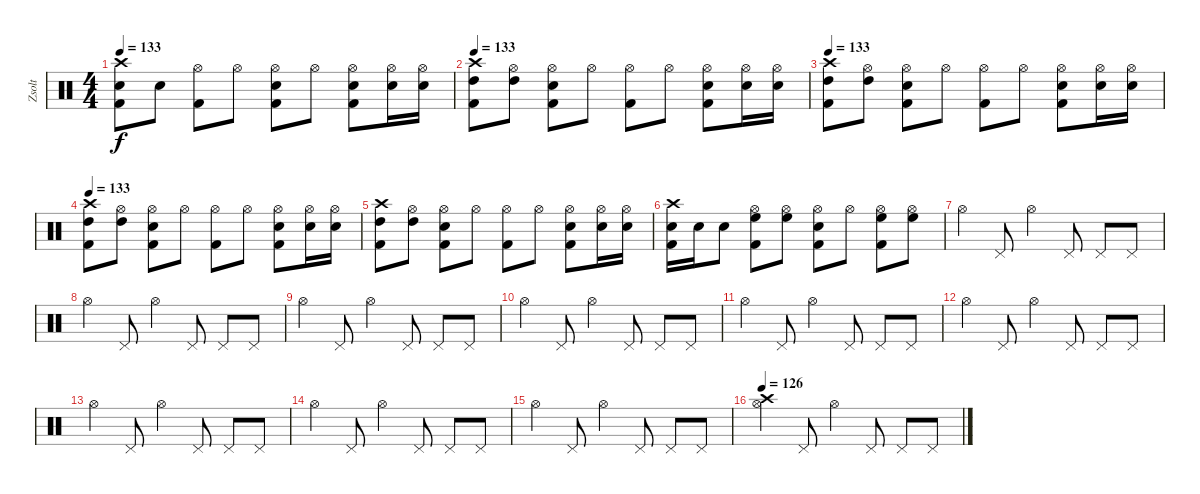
\track ("Zsolt" "Zsolt") {instrument percussion}
\staff {score}
\articulation defaults
\ts (4 4)
\tempo 133
\clef neutral
\ks c
("Crash high (hit)" "Snare (hit) 2" "Kick (hit) 2").8{dy f} "Snare (hit) 2".8 ("Hi-Hat (open)" "Kick (hit) 2").8 "Hi-Hat (open)".8 ("Hi-Hat (open)" "Snare (hit) 2" "Kick (hit) 2").8 "Hi-Hat (open)".8 ("Hi-Hat (open)" "Snare (hit) 2" "Kick (hit) 2").8 ("Hi-Hat (open)" "Snare (hit) 2").16 ("Hi-Hat (open)" "Snare (hit) 2").16 |
\tempo 133
("Crash high (hit)" "High Tom (hit)" "Kick (hit) 2").8 ("Hi-Hat (open)" "High Tom (hit)").8 ("Hi-Hat (open)" "Snare (hit) 2" "Kick (hit) 2").8 "Hi-Hat (open)".8 ("Hi-Hat (open)" "Kick (hit) 2").8 "Hi-Hat (open)".8 ("Hi-Hat (open)" "Snare (hit) 2" "Kick (hit) 2").8 ("Hi-Hat (open)" "Snare (hit) 2").16 ("Hi-Hat (open)" "Snare (hit) 2").16 |
\tempo 133
("Crash high (hit)" "High Tom (hit)" "Kick (hit) 2").8 ("Hi-Hat (open)" "High Tom (hit)").8 ("Hi-Hat (open)" "Snare (hit) 2" "Kick (hit) 2").8 "Hi-Hat (open)".8 ("Hi-Hat (open)" "Kick (hit) 2").8 "Hi-Hat (open)".8 ("Hi-Hat (open)" "Snare (hit) 2" "Kick (hit) 2").8 ("Hi-Hat (open)" "Snare (hit) 2").16 ("Hi-Hat (open)" "Snare (hit) 2").16 |
\tempo 133
("Crash high (hit)" "High Tom (hit)" "Kick (hit) 2").8 ("Hi-Hat (open)" "High Tom (hit)").8 ("Hi-Hat (open)" "Snare (hit) 2" "Kick (hit) 2").8 "Hi-Hat (open)".8 ("Hi-Hat (open)" "Kick (hit) 2").8 "Hi-Hat (open)".8 ("Hi-Hat (open)" "Snare (hit) 2" "Kick (hit) 2").8 ("Hi-Hat (open)" "Snare (hit) 2").16 ("Hi-Hat (open)" "Snare (hit) 2").16 |
("Crash high (hit)" "High Tom (hit)" "Kick (hit) 2").8 ("Hi-Hat (open)" "High Tom (hit)").8 ("Hi-Hat (open)" "Snare (hit) 2" "Kick (hit) 2").8 "Hi-Hat (open)".8 ("Hi-Hat (open)" "Kick (hit) 2").8 "Hi-Hat (open)".8 ("Hi-Hat (open)" "Snare (hit) 2" "Kick (hit) 2").8 ("Hi-Hat (open)" "Snare (hit) 2").16 ("Hi-Hat (open)" "Snare (hit) 2").16 |
("Crash high (hit)" "Snare (hit) 2" "Kick (hit) 2").16 "Snare (hit) 2".16 "Snare (hit) 2".8 ("Hi-Hat (open)" "High Floor Tom (hit)" "Kick (hit) 2").8 ("Hi-Hat (open)" "High Floor Tom (hit)").8 ("Hi-Hat (open)" "Snare (hit) 2" "Kick (hit) 2").8 "Hi-Hat (open)".8 ("Hi-Hat (open)" "High Floor Tom (hit)" "Kick (hit) 2").8 ("Hi-Hat (open)" "High Floor Tom (hit)").8 |
"Hi-Hat (open)".4 "Pedal Hi-Hat (hit)".8 "Hi-Hat (open)".4 "Pedal Hi-Hat (hit)".8 "Pedal Hi-Hat (hit)".8 "Pedal Hi-Hat (hit)".8 |
"Hi-Hat (open)".4 "Pedal Hi-Hat (hit)".8 "Hi-Hat (open)".4 "Pedal Hi-Hat (hit)".8 "Pedal Hi-Hat (hit)".8 "Pedal Hi-Hat (hit)".8 |
"Hi-Hat (open)".4 "Pedal Hi-Hat (hit)".8 "Hi-Hat (open)".4 "Pedal Hi-Hat (hit)".8 "Pedal Hi-Hat (hit)".8 "Pedal Hi-Hat (hit)".8 |
"Hi-Hat (open)".4 "Pedal Hi-Hat (hit)".8 "Hi-Hat (open)".4 "Pedal Hi-Hat (hit)".8 "Pedal Hi-Hat (hit)".8 "Pedal Hi-Hat (hit)".8 |
"Hi-Hat (open)".4 "Pedal Hi-Hat (hit)".8 "Hi-Hat (open)".4 "Pedal Hi-Hat (hit)".8 "Pedal Hi-Hat (hit)".8 "Pedal Hi-Hat (hit)".8 |
"Hi-Hat (open)".4 "Pedal Hi-Hat (hit)".8 "Hi-Hat (open)".4 "Pedal Hi-Hat (hit)".8 "Pedal Hi-Hat (hit)".8 "Pedal Hi-Hat (hit)".8 |
"Hi-Hat (open)".4 "Pedal Hi-Hat (hit)".8 "Hi-Hat (open)".4 "Pedal Hi-Hat (hit)".8 "Pedal Hi-Hat (hit)".8 "Pedal Hi-Hat (hit)".8 |
"Hi-Hat (open)".4 "Pedal Hi-Hat (hit)".8 "Hi-Hat (open)".4 "Pedal Hi-Hat (hit)".8 "Pedal Hi-Hat (hit)".8 "Pedal Hi-Hat (hit)".8 |
"Hi-Hat (open)".4 "Pedal Hi-Hat (hit)".8 "Hi-Hat (open)".4 "Pedal Hi-Hat (hit)".8 "Pedal Hi-Hat (hit)".8 "Pedal Hi-Hat (hit)".8 |
\tempo 126
("Hi-Hat (open)" "Crash high (hit)").4 "Pedal Hi-Hat (hit)".8 "Hi-Hat (open)".4 "Pedal Hi-Hat (hit)".8 "Pedal Hi-Hat (hit)".8 "Pedal Hi-Hat (hit)".8
